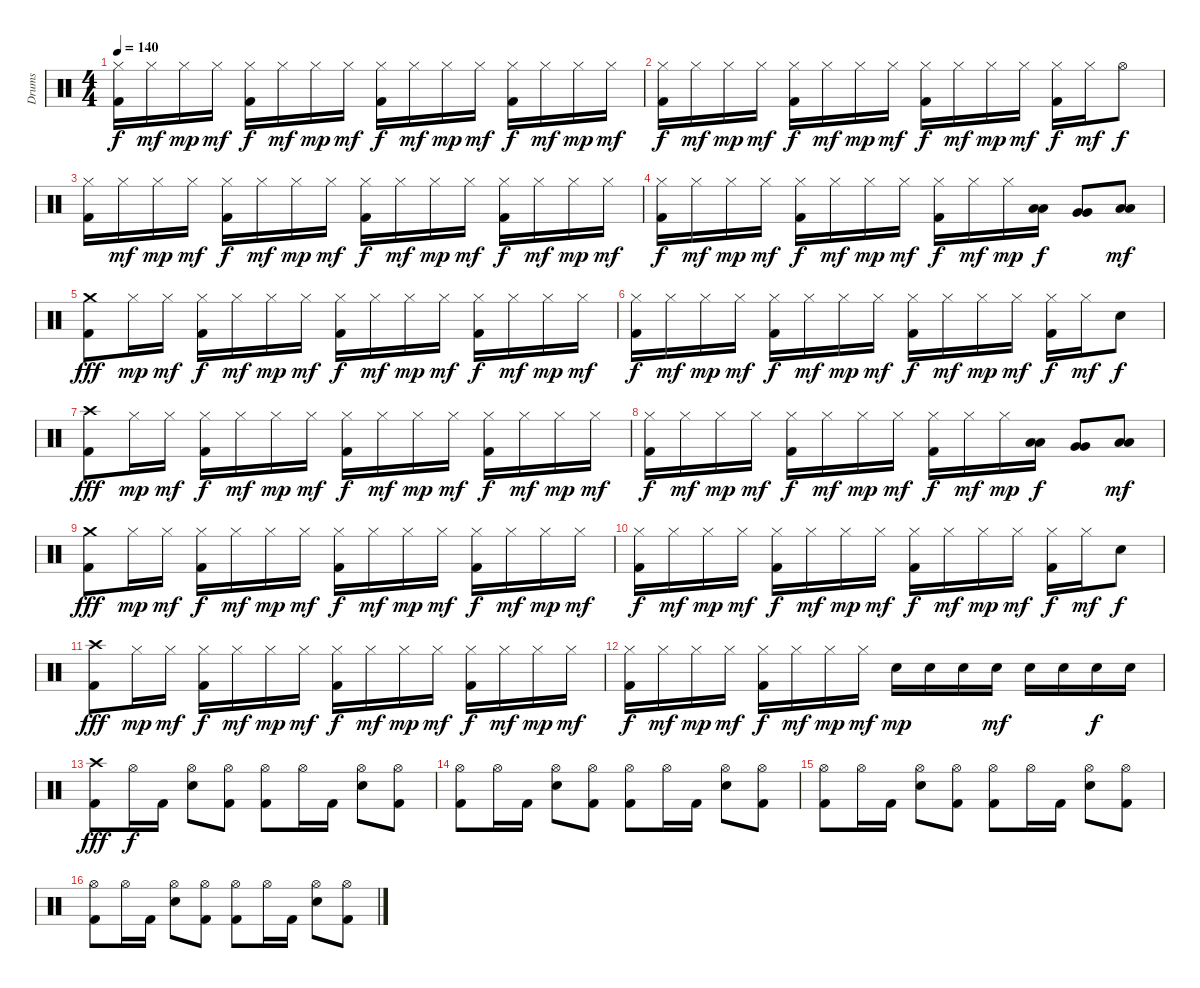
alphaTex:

\track ("Drums" "Drums") {instrument percussion}
\staff {score}
\articulation defaults
\ts (4 4)
\tempo 140
\clef neutral
\ks c
("Kick (hit) 2" "Hi-Hat (closed)").16{dy f} "Hi-Hat (closed)".16{dy mf} "Hi-Hat (closed)".16{dy mp} "Hi-Hat (closed)".16{dy mf} ("Kick (hit) 2" "Hi-Hat (closed)").16{dy f} "Hi-Hat (closed)".16{dy mf} "Hi-Hat (closed)".16{dy mp} "Hi-Hat (closed)".16{dy mf} ("Kick (hit) 2" "Hi-Hat (closed)").16{dy f} "Hi-Hat (closed)".16{dy mf} "Hi-Hat (closed)".16{dy mp} "Hi-Hat (closed)".16{dy mf} ("Kick (hit) 2" "Hi-Hat (closed)").16{dy f} "Hi-Hat (closed)".16{dy mf} "Hi-Hat (closed)".16{dy mp} "Hi-Hat (closed)".16{dy mf} |
("Kick (hit) 2" "Hi-Hat (closed)").16{dy f} "Hi-Hat (closed)".16{dy mf} "Hi-Hat (closed)".16{dy mp} "Hi-Hat (closed)".16{dy mf} ("Kick (hit) 2" "Hi-Hat (closed)").16{dy f} "Hi-Hat (closed)".16{dy mf} "Hi-Hat (closed)".16{dy mp} "Hi-Hat (closed)".16{dy mf} ("Kick (hit) 2" "Hi-Hat (closed)").16{dy f} "Hi-Hat (closed)".16{dy mf} "Hi-Hat (closed)".16{dy mp} "Hi-Hat (closed)".16{dy mf} ("Kick (hit) 2" "Hi-Hat (closed)").16{dy f} "Hi-Hat (closed)".16{dy mf} "Hi-Hat (open)".8{dy f} |
("Kick (hit) 2" "Hi-Hat (closed)").16 "Hi-Hat (closed)".16{dy mf} "Hi-Hat (closed)".16{dy mp} "Hi-Hat (closed)".16{dy mf} ("Kick (hit) 2" "Hi-Hat (closed)").16{dy f} "Hi-Hat (closed)".16{dy mf} "Hi-Hat (closed)".16{dy mp} "Hi-Hat (closed)".16{dy mf} ("Kick (hit) 2" "Hi-Hat (closed)").16{dy f} "Hi-Hat (closed)".16{dy mf} "Hi-Hat (closed)".16{dy mp} "Hi-Hat (closed)".16{dy mf} ("Kick (hit) 2" "Hi-Hat (closed)").16{dy f} "Hi-Hat (closed)".16{dy mf} "Hi-Hat (closed)".16{dy mp} "Hi-Hat (closed)".16{dy mf} |
("Kick (hit) 2" "Hi-Hat (closed)").16{dy f} "Hi-Hat (closed)".16{dy mf} "Hi-Hat (closed)".16{dy mp} "Hi-Hat (closed)".16{dy mf} ("Kick (hit) 2" "Hi-Hat (closed)").16{dy f} "Hi-Hat (closed)".16{dy mf} "Hi-Hat (closed)".16{dy mp} "Hi-Hat (closed)".16{dy mf} ("Kick (hit) 2" "Hi-Hat (closed)").16{dy f} "Hi-Hat (closed)".16{dy mf} "Hi-Hat (closed)".16{dy mp} ("Low Tom (hit)" "Low Tom (hit)").16{dy f} ("Very Low Tom (hit)" "Very Low Tom (hit)").8 ("Low Floor Tom (hit)" "Low Floor Tom (hit)").8{dy mf} |
("Kick (hit) 2" "Crash medium (hit)").8{dy fff} "Hi-Hat (closed)".16{dy mp} "Hi-Hat (closed)".16{dy mf} ("Kick (hit) 2" "Hi-Hat (closed)").16{dy f} "Hi-Hat (closed)".16{dy mf} "Hi-Hat (closed)".16{dy mp} "Hi-Hat (closed)".16{dy mf} ("Kick (hit) 2" "Hi-Hat (closed)").16{dy f} "Hi-Hat (closed)".16{dy mf} "Hi-Hat (closed)".16{dy mp} "Hi-Hat (closed)".16{dy mf} ("Kick (hit) 2" "Hi-Hat (closed)").16{dy f} "Hi-Hat (closed)".16{dy mf} "Hi-Hat (closed)".16{dy mp} "Hi-Hat (closed)".16{dy mf} |
("Kick (hit) 2" "Hi-Hat (closed)").16{dy f} "Hi-Hat (closed)".16{dy mf} "Hi-Hat (closed)".16{dy mp} "Hi-Hat (closed)".16{dy mf} ("Kick (hit) 2" "Hi-Hat (closed)").16{dy f} "Hi-Hat (closed)".16{dy mf} "Hi-Hat (closed)".16{dy mp} "Hi-Hat (closed)".16{dy mf} ("Kick (hit) 2" "Hi-Hat (closed)").16{dy f} "Hi-Hat (closed)".16{dy mf} "Hi-Hat (closed)".16{dy mp} "Hi-Hat (closed)".16{dy mf} ("Kick (hit) 2" "Hi-Hat (closed)").16{dy f} "Hi-Hat (closed)".16{dy mf} "Electric Snare (hit)".8{dy f} |
("Kick (hit) 2" "Crash high (hit)").8{dy fff} "Hi-Hat (closed)".16{dy mp} "Hi-Hat (closed)".16{dy mf} ("Kick (hit) 2" "Hi-Hat (closed)").16{dy f} "Hi-Hat (closed)".16{dy mf} "Hi-Hat (closed)".16{dy mp} "Hi-Hat (closed)".16{dy mf} ("Kick (hit) 2" "Hi-Hat (closed)").16{dy f} "Hi-Hat (closed)".16{dy mf} "Hi-Hat (closed)".16{dy mp} "Hi-Hat (closed)".16{dy mf} ("Kick (hit) 2" "Hi-Hat (closed)").16{dy f} "Hi-Hat (closed)".16{dy mf} "Hi-Hat (closed)".16{dy mp} "Hi-Hat (closed)".16{dy mf} |
("Kick (hit) 2" "Hi-Hat (closed)").16{dy f} "Hi-Hat (closed)".16{dy mf} "Hi-Hat (closed)".16{dy mp} "Hi-Hat (closed)".16{dy mf} ("Kick (hit) 2" "Hi-Hat (closed)").16{dy f} "Hi-Hat (closed)".16{dy mf} "Hi-Hat (closed)".16{dy mp} "Hi-Hat (closed)".16{dy mf} ("Kick (hit) 2" "Hi-Hat (closed)").16{dy f} "Hi-Hat (closed)".16{dy mf} "Hi-Hat (closed)".16{dy mp} ("Low Tom (hit)" "Low Tom (hit)").16{dy f} ("Very Low Tom (hit)" "Very Low Tom (hit)").8 ("Low Floor Tom (hit)" "Low Floor Tom (hit)").8{dy mf} |
("Kick (hit) 2" "Crash medium (hit)").8{dy fff} "Hi-Hat (closed)".16{dy mp} "Hi-Hat (closed)".16{dy mf} ("Kick (hit) 2" "Hi-Hat (closed)").16{dy f} "Hi-Hat (closed)".16{dy mf} "Hi-Hat (closed)".16{dy mp} "Hi-Hat (closed)".16{dy mf} ("Kick (hit) 2" "Hi-Hat (closed)").16{dy f} "Hi-Hat (closed)".16{dy mf} "Hi-Hat (closed)".16{dy mp} "Hi-Hat (closed)".16{dy mf} ("Kick (hit) 2" "Hi-Hat (closed)").16{dy f} "Hi-Hat (closed)".16{dy mf} "Hi-Hat (closed)".16{dy mp} "Hi-Hat (closed)".16{dy mf} |
("Kick (hit) 2" "Hi-Hat (closed)").16{dy f} "Hi-Hat (closed)".16{dy mf} "Hi-Hat (closed)".16{dy mp} "Hi-Hat (closed)".16{dy mf} ("Kick (hit) 2" "Hi-Hat (closed)").16{dy f} "Hi-Hat (closed)".16{dy mf} "Hi-Hat (closed)".16{dy mp} "Hi-Hat (closed)".16{dy mf} ("Kick (hit) 2" "Hi-Hat (closed)").16{dy f} "Hi-Hat (closed)".16{dy mf} "Hi-Hat (closed)".16{dy mp} "Hi-Hat (closed)".16{dy mf} ("Kick (hit) 2" "Hi-Hat (closed)").16{dy f} "Hi-Hat (closed)".16{dy mf} "Electric Snare (hit)".8{dy f} |
("Kick (hit) 2" "Crash high (hit)").8{dy fff} "Hi-Hat (closed)".16{dy mp} "Hi-Hat (closed)".16{dy mf} ("Kick (hit) 2" "Hi-Hat (closed)").16{dy f} "Hi-Hat (closed)".16{dy mf} "Hi-Hat (closed)".16{dy mp} "Hi-Hat (closed)".16{dy mf} ("Kick (hit) 2" "Hi-Hat (closed)").16{dy f} "Hi-Hat (closed)".16{dy mf} "Hi-Hat (closed)".16{dy mp} "Hi-Hat (closed)".16{dy mf} ("Kick (hit) 2" "Hi-Hat (closed)").16{dy f} "Hi-Hat (closed)".16{dy mf} "Hi-Hat (closed)".16{dy mp} "Hi-Hat (closed)".16{dy mf} |
("Kick (hit) 2" "Hi-Hat (closed)").16{dy f} "Hi-Hat (closed)".16{dy mf} "Hi-Hat (closed)".16{dy mp} "Hi-Hat (closed)".16{dy mf} ("Kick (hit) 2" "Hi-Hat (closed)").16{dy f} "Hi-Hat (closed)".16{dy mf} "Hi-Hat (closed)".16{dy mp} "Hi-Hat (closed)".16{dy mf} "Electric Snare (hit)".16{dy mp} "Electric Snare (hit)".16 "Electric Snare (hit)".16 "Electric Snare (hit)".16{dy mf} "Electric Snare (hit)".16 "Electric Snare (hit)".16 "Electric Snare (hit)".16{dy f} "Electric Snare (hit)".16 |
("Kick (hit) 2" "Crash high (hit)").8{dy fff} "Hi-Hat (open)".16{dy f} "Kick (hit) 2".16 ("Electric Snare (hit)" "Hi-Hat (open)").8 ("Kick (hit) 2" "Hi-Hat (open)").8 ("Kick (hit) 2" "Hi-Hat (open)").8 "Hi-Hat (open)".16 "Kick (hit) 2".16 ("Electric Snare (hit)" "Hi-Hat (open)").8 ("Kick (hit) 2" "Hi-Hat (open)").8 |
("Kick (hit) 2" "Hi-Hat (open)").8 "Hi-Hat (open)".16 "Kick (hit) 2".16 ("Electric Snare (hit)" "Hi-Hat (open)").8 ("Kick (hit) 2" "Hi-Hat (open)").8 ("Kick (hit) 2" "Hi-Hat (open)").8 "Hi-Hat (open)".16 "Kick (hit) 2".16 ("Electric Snare (hit)" "Hi-Hat (open)").8 ("Kick (hit) 2" "Hi-Hat (open)").8 |
("Kick (hit) 2" "Hi-Hat (open)").8 "Hi-Hat (open)".16 "Kick (hit) 2".16 ("Electric Snare (hit)" "Hi-Hat (open)").8 ("Kick (hit) 2" "Hi-Hat (open)").8 ("Kick (hit) 2" "Hi-Hat (open)").8 "Hi-Hat (open)".16 "Kick (hit) 2".16 ("Electric Snare (hit)" "Hi-Hat (open)").8 ("Kick (hit) 2" "Hi-Hat (open)").8 |
("Kick (hit) 2" "Hi-Hat (open)").8 "Hi-Hat (open)".16 "Kick (hit) 2".16 ("Electric Snare (hit)" "Hi-Hat (open)").8 ("Kick (hit) 2" "Hi-Hat (open)").8 ("Kick (hit) 2" "Hi-Hat (open)").8 "Hi-Hat (open)".16 "Kick (hit) 2".16 ("Electric Snare (hit)" "Hi-Hat (open)").8 ("Kick (hit) 2" "Hi-Hat (open)").8
